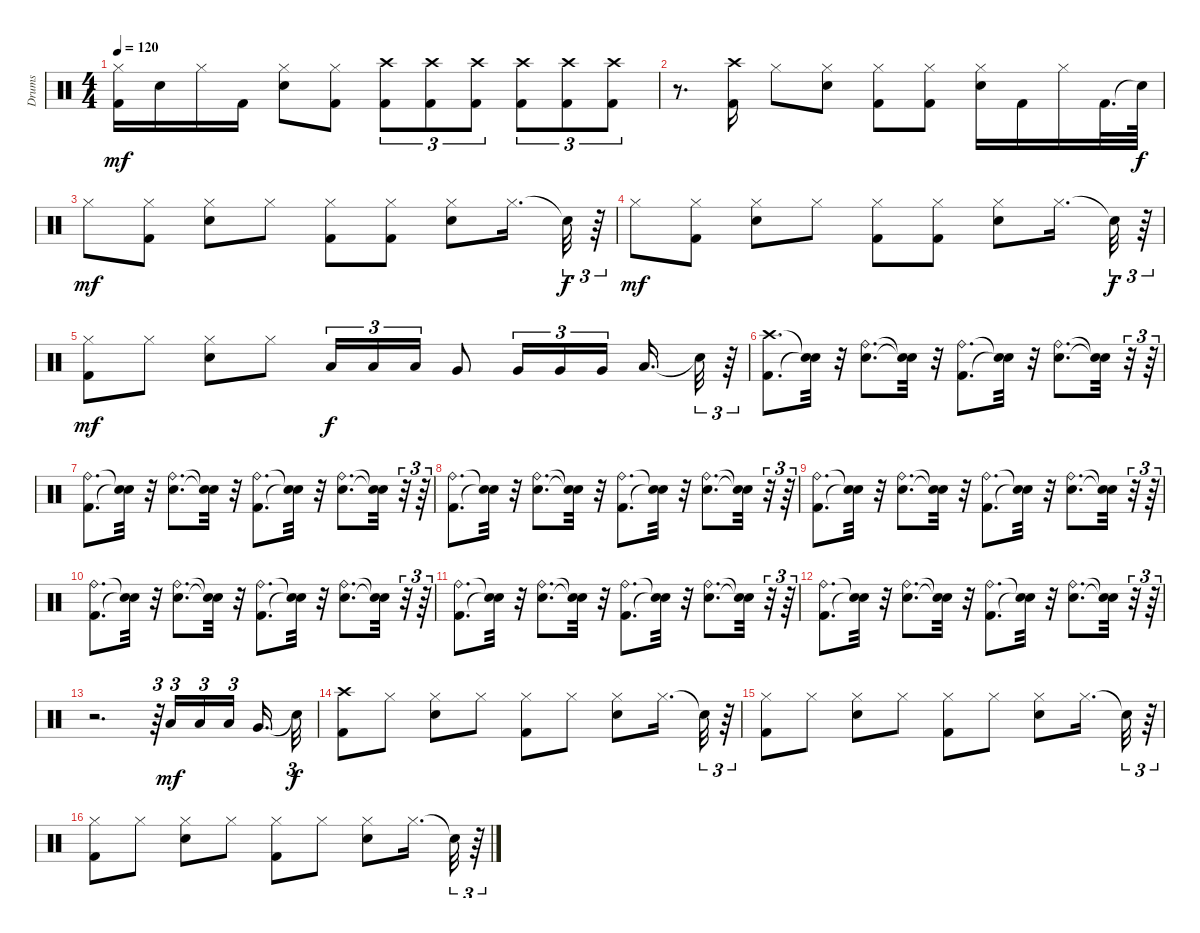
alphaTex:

\track ("Drums" "Drums") {instrument percussion}
\staff {score}
\articulation defaults
\ts (4 4)
\tempo 120
\clef neutral
\ks c
("Hi-Hat (closed)" "Kick (hit) 2").16{dy mf} "Snare (hit) 2".16 "Hi-Hat (closed)".16 "Kick (hit) 2".16 ("Snare (hit) 2" "Hi-Hat (closed)").8 ("Hi-Hat (closed)" "Kick (hit) 2").8 ("Crash high (hit)" "Kick (hit) 2").8{tu (3 2)} ("Crash high (hit)" "Kick (hit) 2").8{tu (3 2)} ("Crash high (hit)" "Kick (hit) 2").8{tu (3 2)} ("Kick (hit) 2" "Crash high (hit)").8{tu (3 2)} ("Kick (hit) 2" "Crash high (hit)").8{tu (3 2)} ("Kick (hit) 2" "Crash high (hit)").8{tu (3 2)} |
r.8{d} ("Kick (hit) 2" "Crash high (hit)").16 "Hi-Hat (closed)".8 ("Snare (hit) 2" "Hi-Hat (closed)").8 ("Kick (hit) 2" "Hi-Hat (closed)").8 ("Kick (hit) 2" "Hi-Hat (closed)").8 ("Hi-Hat (closed)" "Snare (hit) 2").16 "Kick (hit) 2".16 "Hi-Hat (closed)".16 "Kick (hit) 2".32{d} "Snare (hit)"{t}.64{dy f} |
"Hi-Hat (closed)".8{dy mf} ("Kick (hit) 2" "Hi-Hat (closed)").8 ("Hi-Hat (closed)" "Snare (hit) 2").8 "Hi-Hat (closed)".8 ("Kick (hit) 2" "Hi-Hat (closed)").8 ("Hi-Hat (closed)" "Kick (hit) 2").8 ("Snare (hit) 2" "Hi-Hat (closed)").8 "Hi-Hat (closed)".16{d} "Snare (hit)"{t}.32{tu (3 2) dy f} r.64{tu (3 2)} |
"Hi-Hat (closed)".8{dy mf} ("Hi-Hat (closed)" "Kick (hit) 2").8 ("Snare (hit) 2" "Hi-Hat (closed)").8 "Hi-Hat (closed)".8 ("Hi-Hat (closed)" "Kick (hit) 2").8 ("Kick (hit) 2" "Hi-Hat (closed)").8 ("Snare (hit) 2" "Hi-Hat (closed)").8 "Hi-Hat (closed)".16{d} "Snare (hit)"{t}.32{tu (3 2) dy f} r.64{tu (3 2)} |
("Hi-Hat (closed)" "Kick (hit) 2").8{dy mf} "Hi-Hat (closed)".8 ("Hi-Hat (closed)" "Snare (hit) 2").8 "Hi-Hat (closed)".8 "Low Tom (hit)".16{tu (3 2) dy f} "Low Tom (hit)".16{tu (3 2)} "Low Tom (hit)".16{tu (3 2)} "Very Low Tom (hit)".8 "Very Low Tom (hit)".16{tu (3 2)} "Very Low Tom (hit)".16{tu (3 2)} "Very Low Tom (hit)".16{tu (3 2) beam splitsecondary} "Low Floor Tom (hit)".16{d} "Snare (hit)"{t}.32{tu (3 2)} r.64{tu (3 2)} |
("Kick (hit) 2" "Crash high (hit)").8{d} ("Snare (hit)"{t} "Snare (hit)"{t}).32 r.32 ("Ride (bell)" "Snare (hit) 2").8{d} ("Snare (hit)"{t} "Snare (hit)"{t}).32 r.32 ("Kick (hit) 2" "Ride (bell)").8{d} ("Snare (hit)"{t} "Snare (hit)"{t}).32 r.32 ("Snare (hit) 2" "Ride (bell)").8{d} ("Snare (hit)"{t} "Snare (hit)"{t}).32 r.32{tu (3 2)} r.64{tu (3 2)} |
("Kick (hit) 2" "Ride (bell)").8{d} ("Snare (hit)"{t} "Snare (hit)"{t}).32 r.32 ("Snare (hit) 2" "Ride (bell)").8{d} ("Snare (hit)"{t} "Snare (hit)"{t}).32 r.32 ("Ride (bell)" "Kick (hit) 2").8{d} ("Snare (hit)"{t} "Snare (hit)"{t}).32 r.32 ("Ride (bell)" "Snare (hit) 2").8{d} ("Snare (hit)"{t} "Snare (hit)"{t}).32 r.32{tu (3 2)} r.64{tu (3 2)} |
("Ride (bell)" "Kick (hit) 2").8{d} ("Snare (hit)"{t} "Snare (hit)"{t}).32 r.32 ("Ride (bell)" "Snare (hit) 2").8{d} ("Snare (hit)"{t} "Snare (hit)"{t}).32 r.32 ("Ride (bell)" "Kick (hit) 2").8{d} ("Snare (hit)"{t} "Snare (hit)"{t}).32 r.32 ("Ride (bell)" "Snare (hit) 2").8{d} ("Snare (hit)"{t} "Snare (hit)"{t}).32 r.32{tu (3 2)} r.64{tu (3 2)} |
("Ride (bell)" "Kick (hit) 2").8{d} ("Snare (hit)"{t} "Snare (hit)"{t}).32 r.32 ("Snare (hit) 2" "Ride (bell)").8{d} ("Snare (hit)"{t} "Snare (hit)"{t}).32 r.32 ("Ride (bell)" "Kick (hit) 2").8{d} ("Snare (hit)"{t} "Snare (hit)"{t}).32 r.32 ("Ride (bell)" "Snare (hit) 2").8{d} ("Snare (hit)"{t} "Snare (hit)"{t}).32 r.32{tu (3 2)} r.64{tu (3 2)} |
("Kick (hit) 2" "Ride (bell)").8{d} ("Snare (hit)"{t} "Snare (hit)"{t}).32 r.32 ("Snare (hit) 2" "Ride (bell)").8{d} ("Snare (hit)"{t} "Snare (hit)"{t}).32 r.32 ("Ride (bell)" "Kick (hit) 2").8{d} ("Snare (hit)"{t} "Snare (hit)"{t}).32 r.32 ("Snare (hit) 2" "Ride (bell)").8{d} ("Snare (hit)"{t} "Snare (hit)"{t}).32 r.32{tu (3 2)} r.64{tu (3 2)} |
("Kick (hit) 2" "Ride (bell)").8{d} ("Snare (hit)"{t} "Snare (hit)"{t}).32 r.32 ("Ride (bell)" "Snare (hit) 2").8{d} ("Snare (hit)"{t} "Snare (hit)"{t}).32 r.32 ("Ride (bell)" "Kick (hit) 2").8{d} ("Snare (hit)"{t} "Snare (hit)"{t}).32 r.32 ("Snare (hit) 2" "Ride (bell)").8{d} ("Snare (hit)"{t} "Snare (hit)"{t}).32 r.32{tu (3 2)} r.64{tu (3 2)} |
("Kick (hit) 2" "Ride (bell)").8{d} ("Snare (hit)"{t} "Snare (hit)"{t}).32 r.32 ("Ride (bell)" "Snare (hit) 2").8{d} ("Snare (hit)"{t} "Snare (hit)"{t}).32 r.32 ("Kick (hit) 2" "Ride (bell)").8{d} ("Snare (hit)"{t} "Snare (hit)"{t}).32 r.32 ("Snare (hit) 2" "Ride (bell)").8{d} ("Snare (hit)"{t} "Snare (hit)"{t}).32 r.32{tu (3 2)} r.64{tu (3 2)} |
r.2{d} r.64{tu (3 2)} "Low Tom (hit)".16{tu (3 2) dy mf} "Low Tom (hit)".16{tu (3 2)} "Low Tom (hit)".16{tu (3 2) beam splitsecondary} "Very Low Tom (hit)".16{d} "Snare (hit)"{t}.32{tu (3 2) dy f} |
("Crash high (hit)" "Kick (hit) 2").8 "Hi-Hat (closed)".8 ("Hi-Hat (closed)" "Snare (hit) 2").8 "Hi-Hat (closed)".8 ("Hi-Hat (closed)" "Kick (hit) 2").8 "Hi-Hat (closed)".8 ("Snare (hit) 2" "Hi-Hat (closed)").8 "Hi-Hat (closed)".16{d} "Snare (hit)"{t}.32{tu (3 2)} r.64{tu (3 2)} |
("Hi-Hat (closed)" "Kick (hit) 2").8 "Hi-Hat (closed)".8 ("Hi-Hat (closed)" "Snare (hit) 2").8 "Hi-Hat (closed)".8 ("Kick (hit) 2" "Hi-Hat (closed)").8 "Hi-Hat (closed)".8 ("Hi-Hat (closed)" "Snare (hit) 2").8 "Hi-Hat (closed)".16{d} "Snare (hit)"{t}.32{tu (3 2)} r.64{tu (3 2)} |
("Kick (hit) 2" "Hi-Hat (closed)").8 "Hi-Hat (closed)".8 ("Snare (hit) 2" "Hi-Hat (closed)").8 "Hi-Hat (closed)".8 ("Hi-Hat (closed)" "Kick (hit) 2").8 "Hi-Hat (closed)".8 ("Snare (hit) 2" "Hi-Hat (closed)").8 "Hi-Hat (closed)".16{d} "Snare (hit)"{t}.32{tu (3 2)} r.64{tu (3 2)}
